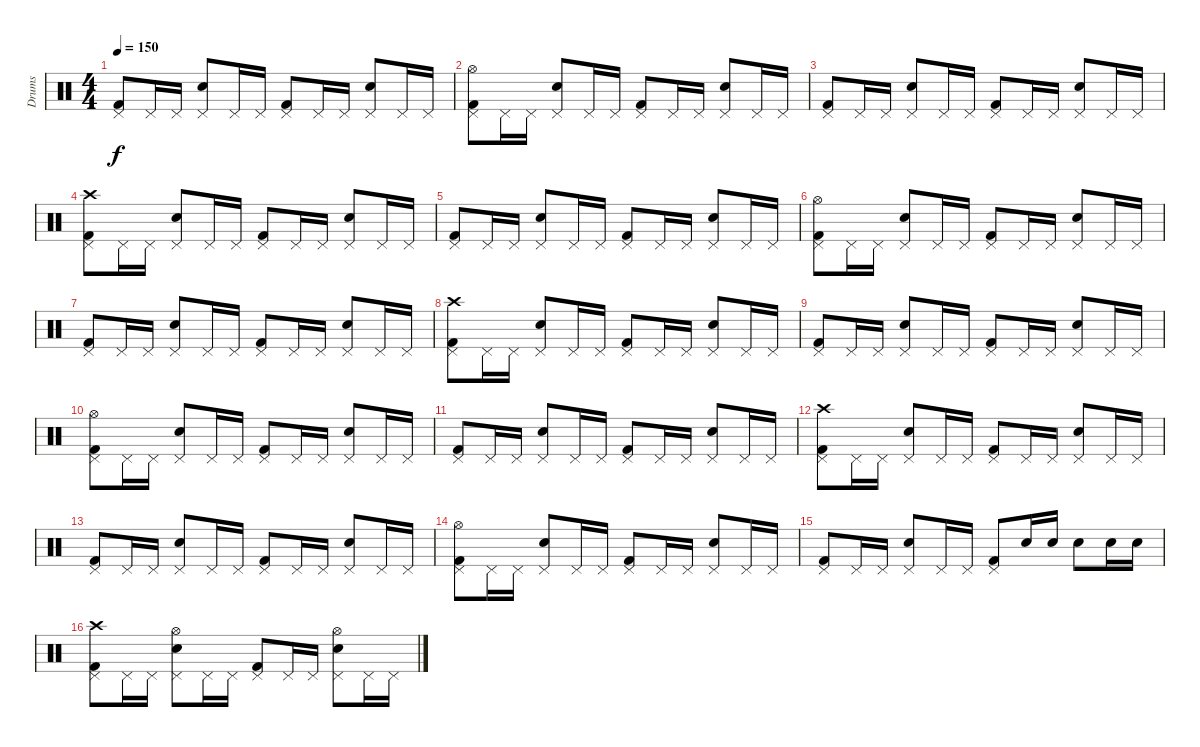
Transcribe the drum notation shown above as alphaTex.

\track ("Drums" "Drums") {instrument percussion}
\staff {score}
\articulation defaults
\ts (4 4)
\tempo 150
\clef neutral
\ks c
("Kick (hit) 2" "Pedal Hi-Hat (hit)").8{dy f} "Pedal Hi-Hat (hit)".16 "Pedal Hi-Hat (hit)".16 ("Snare (hit) 2" "Pedal Hi-Hat (hit)").8 "Pedal Hi-Hat (hit)".16 "Pedal Hi-Hat (hit)".16 ("Kick (hit) 2" "Pedal Hi-Hat (hit)").8 "Pedal Hi-Hat (hit)".16 "Pedal Hi-Hat (hit)".16 ("Snare (hit) 2" "Pedal Hi-Hat (hit)").8 "Pedal Hi-Hat (hit)".16 "Pedal Hi-Hat (hit)".16 |
("Kick (hit) 2" "Pedal Hi-Hat (hit)" "Hi-Hat (open)").8 "Pedal Hi-Hat (hit)".16 "Pedal Hi-Hat (hit)".16 ("Snare (hit) 2" "Pedal Hi-Hat (hit)").8 "Pedal Hi-Hat (hit)".16 "Pedal Hi-Hat (hit)".16 ("Kick (hit) 2" "Pedal Hi-Hat (hit)").8 "Pedal Hi-Hat (hit)".16 "Pedal Hi-Hat (hit)".16 ("Snare (hit) 2" "Pedal Hi-Hat (hit)").8 "Pedal Hi-Hat (hit)".16 "Pedal Hi-Hat (hit)".16 |
("Kick (hit) 2" "Pedal Hi-Hat (hit)").8 "Pedal Hi-Hat (hit)".16 "Pedal Hi-Hat (hit)".16 ("Snare (hit) 2" "Pedal Hi-Hat (hit)").8 "Pedal Hi-Hat (hit)".16 "Pedal Hi-Hat (hit)".16 ("Kick (hit) 2" "Pedal Hi-Hat (hit)").8 "Pedal Hi-Hat (hit)".16 "Pedal Hi-Hat (hit)".16 ("Snare (hit) 2" "Pedal Hi-Hat (hit)").8 "Pedal Hi-Hat (hit)".16 "Pedal Hi-Hat (hit)".16 |
("Kick (hit) 2" "Pedal Hi-Hat (hit)" "Crash high (hit)").8 "Pedal Hi-Hat (hit)".16 "Pedal Hi-Hat (hit)".16 ("Snare (hit) 2" "Pedal Hi-Hat (hit)").8 "Pedal Hi-Hat (hit)".16 "Pedal Hi-Hat (hit)".16 ("Kick (hit) 2" "Pedal Hi-Hat (hit)").8 "Pedal Hi-Hat (hit)".16 "Pedal Hi-Hat (hit)".16 ("Snare (hit) 2" "Pedal Hi-Hat (hit)").8 "Pedal Hi-Hat (hit)".16 "Pedal Hi-Hat (hit)".16 |
("Kick (hit) 2" "Pedal Hi-Hat (hit)").8 "Pedal Hi-Hat (hit)".16 "Pedal Hi-Hat (hit)".16 ("Snare (hit) 2" "Pedal Hi-Hat (hit)").8 "Pedal Hi-Hat (hit)".16 "Pedal Hi-Hat (hit)".16 ("Kick (hit) 2" "Pedal Hi-Hat (hit)").8 "Pedal Hi-Hat (hit)".16 "Pedal Hi-Hat (hit)".16 ("Snare (hit) 2" "Pedal Hi-Hat (hit)").8 "Pedal Hi-Hat (hit)".16 "Pedal Hi-Hat (hit)".16 |
("Kick (hit) 2" "Pedal Hi-Hat (hit)" "Hi-Hat (open)").8 "Pedal Hi-Hat (hit)".16 "Pedal Hi-Hat (hit)".16 ("Snare (hit) 2" "Pedal Hi-Hat (hit)").8 "Pedal Hi-Hat (hit)".16 "Pedal Hi-Hat (hit)".16 ("Kick (hit) 2" "Pedal Hi-Hat (hit)").8 "Pedal Hi-Hat (hit)".16 "Pedal Hi-Hat (hit)".16 ("Snare (hit) 2" "Pedal Hi-Hat (hit)").8 "Pedal Hi-Hat (hit)".16 "Pedal Hi-Hat (hit)".16 |
("Kick (hit) 2" "Pedal Hi-Hat (hit)").8 "Pedal Hi-Hat (hit)".16 "Pedal Hi-Hat (hit)".16 ("Snare (hit) 2" "Pedal Hi-Hat (hit)").8 "Pedal Hi-Hat (hit)".16 "Pedal Hi-Hat (hit)".16 ("Kick (hit) 2" "Pedal Hi-Hat (hit)").8 "Pedal Hi-Hat (hit)".16 "Pedal Hi-Hat (hit)".16 ("Snare (hit) 2" "Pedal Hi-Hat (hit)").8 "Pedal Hi-Hat (hit)".16 "Pedal Hi-Hat (hit)".16 |
("Kick (hit) 2" "Pedal Hi-Hat (hit)" "Crash high (hit)").8 "Pedal Hi-Hat (hit)".16 "Pedal Hi-Hat (hit)".16 ("Snare (hit) 2" "Pedal Hi-Hat (hit)").8 "Pedal Hi-Hat (hit)".16 "Pedal Hi-Hat (hit)".16 ("Kick (hit) 2" "Pedal Hi-Hat (hit)").8 "Pedal Hi-Hat (hit)".16 "Pedal Hi-Hat (hit)".16 ("Snare (hit) 2" "Pedal Hi-Hat (hit)").8 "Pedal Hi-Hat (hit)".16 "Pedal Hi-Hat (hit)".16 |
("Kick (hit) 2" "Pedal Hi-Hat (hit)").8 "Pedal Hi-Hat (hit)".16 "Pedal Hi-Hat (hit)".16 ("Snare (hit) 2" "Pedal Hi-Hat (hit)").8 "Pedal Hi-Hat (hit)".16 "Pedal Hi-Hat (hit)".16 ("Kick (hit) 2" "Pedal Hi-Hat (hit)").8 "Pedal Hi-Hat (hit)".16 "Pedal Hi-Hat (hit)".16 ("Snare (hit) 2" "Pedal Hi-Hat (hit)").8 "Pedal Hi-Hat (hit)".16 "Pedal Hi-Hat (hit)".16 |
("Kick (hit) 2" "Pedal Hi-Hat (hit)" "Hi-Hat (open)").8 "Pedal Hi-Hat (hit)".16 "Pedal Hi-Hat (hit)".16 ("Snare (hit) 2" "Pedal Hi-Hat (hit)").8 "Pedal Hi-Hat (hit)".16 "Pedal Hi-Hat (hit)".16 ("Kick (hit) 2" "Pedal Hi-Hat (hit)").8 "Pedal Hi-Hat (hit)".16 "Pedal Hi-Hat (hit)".16 ("Snare (hit) 2" "Pedal Hi-Hat (hit)").8 "Pedal Hi-Hat (hit)".16 "Pedal Hi-Hat (hit)".16 |
("Kick (hit) 2" "Pedal Hi-Hat (hit)").8 "Pedal Hi-Hat (hit)".16 "Pedal Hi-Hat (hit)".16 ("Snare (hit) 2" "Pedal Hi-Hat (hit)").8 "Pedal Hi-Hat (hit)".16 "Pedal Hi-Hat (hit)".16 ("Kick (hit) 2" "Pedal Hi-Hat (hit)").8 "Pedal Hi-Hat (hit)".16 "Pedal Hi-Hat (hit)".16 ("Snare (hit) 2" "Pedal Hi-Hat (hit)").8 "Pedal Hi-Hat (hit)".16 "Pedal Hi-Hat (hit)".16 |
("Kick (hit) 2" "Pedal Hi-Hat (hit)" "Crash high (hit)").8 "Pedal Hi-Hat (hit)".16 "Pedal Hi-Hat (hit)".16 ("Snare (hit) 2" "Pedal Hi-Hat (hit)").8 "Pedal Hi-Hat (hit)".16 "Pedal Hi-Hat (hit)".16 ("Kick (hit) 2" "Pedal Hi-Hat (hit)").8 "Pedal Hi-Hat (hit)".16 "Pedal Hi-Hat (hit)".16 ("Snare (hit) 2" "Pedal Hi-Hat (hit)").8 "Pedal Hi-Hat (hit)".16 "Pedal Hi-Hat (hit)".16 |
("Kick (hit) 2" "Pedal Hi-Hat (hit)").8 "Pedal Hi-Hat (hit)".16 "Pedal Hi-Hat (hit)".16 ("Snare (hit) 2" "Pedal Hi-Hat (hit)").8 "Pedal Hi-Hat (hit)".16 "Pedal Hi-Hat (hit)".16 ("Kick (hit) 2" "Pedal Hi-Hat (hit)").8 "Pedal Hi-Hat (hit)".16 "Pedal Hi-Hat (hit)".16 ("Snare (hit) 2" "Pedal Hi-Hat (hit)").8 "Pedal Hi-Hat (hit)".16 "Pedal Hi-Hat (hit)".16 |
("Kick (hit) 2" "Pedal Hi-Hat (hit)" "Hi-Hat (open)").8 "Pedal Hi-Hat (hit)".16 "Pedal Hi-Hat (hit)".16 ("Snare (hit) 2" "Pedal Hi-Hat (hit)").8 "Pedal Hi-Hat (hit)".16 "Pedal Hi-Hat (hit)".16 ("Kick (hit) 2" "Pedal Hi-Hat (hit)").8 "Pedal Hi-Hat (hit)".16 "Pedal Hi-Hat (hit)".16 ("Snare (hit) 2" "Pedal Hi-Hat (hit)").8 "Pedal Hi-Hat (hit)".16 "Pedal Hi-Hat (hit)".16 |
("Kick (hit) 2" "Pedal Hi-Hat (hit)").8 "Pedal Hi-Hat (hit)".16 "Pedal Hi-Hat (hit)".16 ("Snare (hit) 2" "Pedal Hi-Hat (hit)").8 "Pedal Hi-Hat (hit)".16 "Pedal Hi-Hat (hit)".16 ("Kick (hit) 2" "Pedal Hi-Hat (hit)").8 "Snare (hit) 2".16 "Snare (hit) 2".16 "Snare (hit) 2".8 "Snare (hit) 2".16 "Snare (hit) 2".16 |
("Kick (hit) 2" "Pedal Hi-Hat (hit)" "Crash high (hit)").8 "Pedal Hi-Hat (hit)".16 "Pedal Hi-Hat (hit)".16 ("Snare (hit) 2" "Pedal Hi-Hat (hit)" "Hi-Hat (open)").8 "Pedal Hi-Hat (hit)".16 "Pedal Hi-Hat (hit)".16 ("Kick (hit) 2" "Pedal Hi-Hat (hit)").8 "Pedal Hi-Hat (hit)".16 "Pedal Hi-Hat (hit)".16 ("Snare (hit) 2" "Pedal Hi-Hat (hit)" "Hi-Hat (open)").8 "Pedal Hi-Hat (hit)".16 "Pedal Hi-Hat (hit)".16
